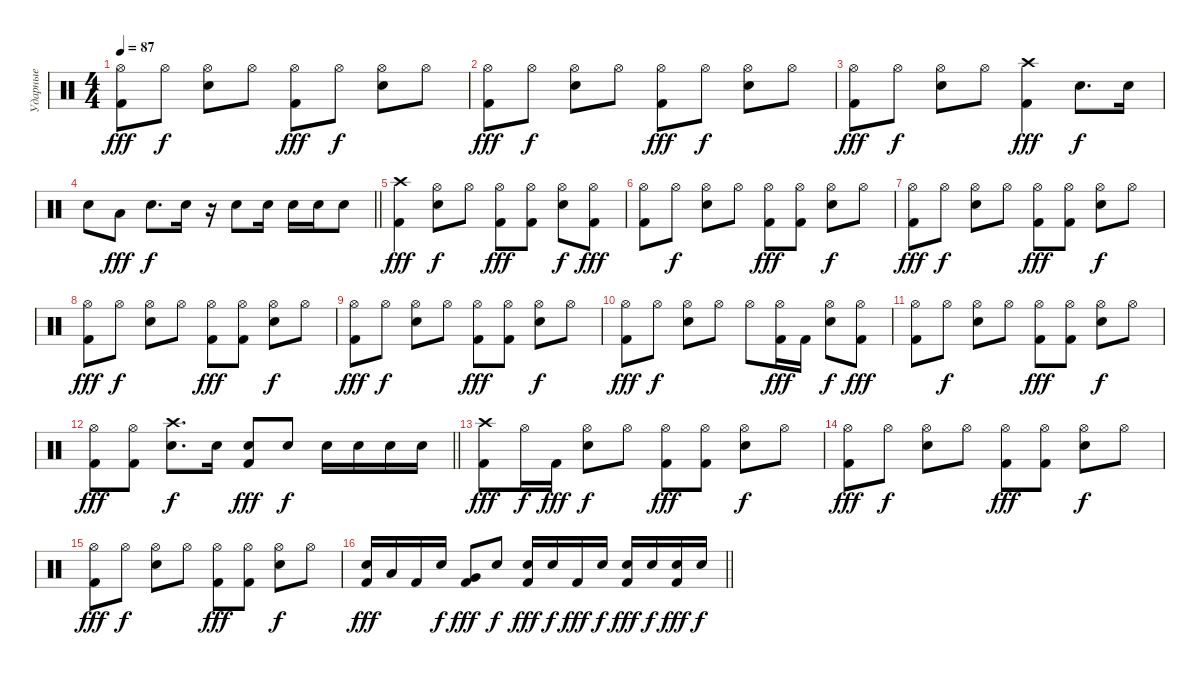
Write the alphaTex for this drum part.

\track ("Ударные" "Ударные") {instrument percussion}
\staff {score}
\articulation defaults
\ts (4 4)
\tempo 87
\clef neutral
\ks c
("Kick (hit) 2" "Hi-Hat (open)").8{dy fff} "Hi-Hat (open)".8{dy f} ("Snare (hit) 2" "Hi-Hat (open)").8 "Hi-Hat (open)".8 ("Kick (hit) 2" "Hi-Hat (open)").8{dy fff} "Hi-Hat (open)".8{dy f} ("Snare (hit) 2" "Hi-Hat (open)").8 "Hi-Hat (open)".8 |
("Kick (hit) 2" "Hi-Hat (open)").8{dy fff} "Hi-Hat (open)".8{dy f} ("Snare (hit) 2" "Hi-Hat (open)").8 "Hi-Hat (open)".8 ("Kick (hit) 2" "Hi-Hat (open)").8{dy fff} "Hi-Hat (open)".8{dy f} ("Snare (hit) 2" "Hi-Hat (open)").8 "Hi-Hat (open)".8 |
("Kick (hit) 2" "Hi-Hat (open)").8{dy fff} "Hi-Hat (open)".8{dy f} ("Snare (hit) 2" "Hi-Hat (open)").8 "Hi-Hat (open)".8 ("Kick (hit) 2" "Crash high (hit)").4{dy fff} "Snare (hit) 2".8{d dy f} "Snare (hit) 2".16 |
\barLineRight lightlight "Snare (hit) 2".8 "Low Tom (hit)".8{dy fff} "Snare (hit) 2".8{d dy f} "Snare (hit) 2".16
r.16 "Snare (hit) 2".8 "Snare (hit) 2".16 "Snare (hit) 2".16 "Snare (hit) 2".16 "Snare (hit) 2".8 |
("Kick (hit) 2" "Crash high (hit)").4{dy fff} ("Snare (hit) 2" "Hi-Hat (open)").8{dy f} "Hi-Hat (open)".8 ("Kick (hit) 2" "Hi-Hat (open)").8{dy fff} ("Kick (hit) 2" "Hi-Hat (open)").8 ("Snare (hit) 2" "Hi-Hat (open)").8{dy f} ("Kick (hit) 2" "Hi-Hat (open)").8{dy fff} |
("Kick (hit) 2" "Hi-Hat (open)").8 "Hi-Hat (open)".8{dy f} ("Snare (hit) 2" "Hi-Hat (open)").8 "Hi-Hat (open)".8 ("Kick (hit) 2" "Hi-Hat (open)").8{dy fff} ("Kick (hit) 2" "Hi-Hat (open)").8 ("Snare (hit) 2" "Hi-Hat (open)").8{dy f} "Hi-Hat (open)".8 |
("Kick (hit) 2" "Hi-Hat (open)").8{dy fff} "Hi-Hat (open)".8{dy f} ("Snare (hit) 2" "Hi-Hat (open)").8 "Hi-Hat (open)".8 ("Kick (hit) 2" "Hi-Hat (open)").8{dy fff} ("Kick (hit) 2" "Hi-Hat (open)").8 ("Snare (hit) 2" "Hi-Hat (open)").8{dy f} "Hi-Hat (open)".8 |
("Kick (hit) 2" "Hi-Hat (open)").8{dy fff} "Hi-Hat (open)".8{dy f} ("Snare (hit) 2" "Hi-Hat (open)").8 "Hi-Hat (open)".8 ("Kick (hit) 2" "Hi-Hat (open)").8{dy fff} ("Kick (hit) 2" "Hi-Hat (open)").8 ("Snare (hit) 2" "Hi-Hat (open)").8{dy f} "Hi-Hat (open)".8 |
("Kick (hit) 2" "Hi-Hat (open)").8{dy fff} "Hi-Hat (open)".8{dy f} ("Snare (hit) 2" "Hi-Hat (open)").8 "Hi-Hat (open)".8 ("Kick (hit) 2" "Hi-Hat (open)").8{dy fff} ("Kick (hit) 2" "Hi-Hat (open)").8 ("Snare (hit) 2" "Hi-Hat (open)").8{dy f} "Hi-Hat (open)".8 |
("Kick (hit) 2" "Hi-Hat (open)").8{dy fff} "Hi-Hat (open)".8{dy f} ("Snare (hit) 2" "Hi-Hat (open)").8 "Hi-Hat (open)".8 "Hi-Hat (open)".8 ("Kick (hit) 2" "Hi-Hat (open)").16{dy fff} "Kick (hit) 2".16 ("Snare (hit) 2" "Hi-Hat (open)").8{dy f} ("Kick (hit) 2" "Hi-Hat (open)").8{dy fff} |
("Kick (hit) 2" "Hi-Hat (open)").8 "Hi-Hat (open)".8{dy f} ("Snare (hit) 2" "Hi-Hat (open)").8 "Hi-Hat (open)".8 ("Kick (hit) 2" "Hi-Hat (open)").8{dy fff} ("Kick (hit) 2" "Hi-Hat (open)").8 ("Snare (hit) 2" "Hi-Hat (open)").8{dy f} "Hi-Hat (open)".8 |
\barLineRight lightlight
("Kick (hit) 2" "Hi-Hat (open)").8{dy fff} ("Kick (hit) 2" "Hi-Hat (open)").8 ("Snare (hit) 2" "Crash high (hit)").8{d dy f} "Snare (hit) 2".16 ("Kick (hit) 2" "Snare (hit) 2").8{dy fff} "Snare (hit) 2".8{dy f} "Snare (hit) 2".16 "Snare (hit) 2".16 "Snare (hit) 2".16 "Snare (hit) 2".16 |
("Kick (hit) 2" "Crash high (hit)").8{dy fff} "Hi-Hat (open)".16{dy f} "Kick (hit) 2".16{dy fff} ("Snare (hit) 2" "Hi-Hat (open)").8{dy f} "Hi-Hat (open)".8 ("Kick (hit) 2" "Hi-Hat (open)").8{dy fff} ("Kick (hit) 2" "Hi-Hat (open)").8 ("Snare (hit) 2" "Hi-Hat (open)").8{dy f} "Hi-Hat (open)".8 |
("Kick (hit) 2" "Hi-Hat (open)").8{dy fff} "Hi-Hat (open)".8{dy f} ("Snare (hit) 2" "Hi-Hat (open)").8 "Hi-Hat (open)".8 ("Kick (hit) 2" "Hi-Hat (open)").8{dy fff} ("Kick (hit) 2" "Hi-Hat (open)").8 ("Snare (hit) 2" "Hi-Hat (open)").8{dy f} "Hi-Hat (open)".8 |
("Kick (hit) 2" "Hi-Hat (open)").8{dy fff} "Hi-Hat (open)".8{dy f} ("Snare (hit) 2" "Hi-Hat (open)").8 "Hi-Hat (open)".8 ("Kick (hit) 2" "Hi-Hat (open)").8{dy fff} ("Kick (hit) 2" "Hi-Hat (open)").8 ("Snare (hit) 2" "Hi-Hat (open)").8{dy f} "Hi-Hat (open)".8 |
\barLineRight lightlight
("Kick (hit) 2" "Snare (hit) 2").16{dy fff} "Low Tom (hit)".16 "Kick (hit) 2".16 "Snare (hit) 2".16{dy f} ("Kick (hit) 2" "Very Low Tom (hit)").8{dy fff} "Snare (hit) 2".8{dy f} ("Kick (hit) 2" "Snare (hit) 2").16{dy fff} "Snare (hit) 2".16{dy f} "Kick (hit) 2".16{dy fff} "Snare (hit) 2".16{dy f} ("Kick (hit) 2" "Snare (hit) 2").16{dy fff} "Snare (hit) 2".16{dy f} ("Kick (hit) 2" "Snare (hit) 2").16{dy fff} "Snare (hit) 2".16{dy f}
